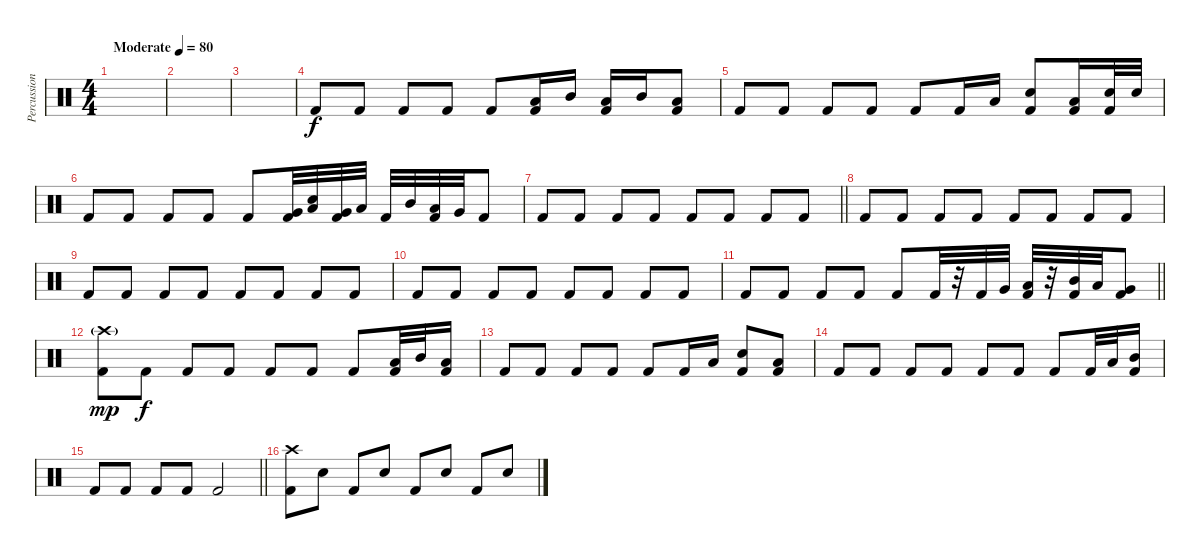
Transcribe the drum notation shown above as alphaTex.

\track ("Percussion" "Percussion") {instrument percussion}
\staff {score}
\articulation defaults
\ts (4 4)
\tempo (80 "Moderate")
\clef neutral
\ks c
|
|
|
"Kick (hit) 2".8 "Kick (hit) 2".8 "Kick (hit) 2".8 "Kick (hit) 2".8 "Kick (hit) 2".8 ("Kick (hit) 2" "Low Tom (hit)").16 "Mid Tom (hit)".16 ("Kick (hit) 2" "Low Tom (hit)").16 "Mid Tom (hit)".16 ("Kick (hit) 2" "Low Tom (hit)").8 |
"Kick (hit) 2".8 "Kick (hit) 2".8 "Kick (hit) 2".8 "Kick (hit) 2".8 "Kick (hit) 2".8 "Kick (hit) 2".16 "Low Tom (hit)".16 ("Kick (hit) 2" "Electric Snare (hit)").8 ("Kick (hit) 2" "Low Tom (hit)").16 ("Kick (hit) 2" "Electric Snare (hit)").32 "Electric Snare (hit)".32 |
"Kick (hit) 2".8 "Kick (hit) 2".8 "Kick (hit) 2".8 "Kick (hit) 2".8 "Kick (hit) 2".8 ("Kick (hit) 2" "Very Low Tom (hit)").32 ("Low Tom (hit)" "Electric Snare (hit)").32 ("Kick (hit) 2" "Very Low Tom (hit)").32 "Low Tom (hit)".32 "Kick (hit) 2".32 "Mid Tom (hit)".32 ("Kick (hit) 2" "Low Tom (hit)").32 "Very Low Tom (hit)".32 "Kick (hit) 2".8 |
\barLineRight lightlight "Kick (hit) 2".8 "Kick (hit) 2".8 "Kick (hit) 2".8 "Kick (hit) 2".8 "Kick (hit) 2".8 "Kick (hit) 2".8 "Kick (hit) 2".8 "Kick (hit) 2".8
|
"Kick (hit) 2".8 "Kick (hit) 2".8 "Kick (hit) 2".8 "Kick (hit) 2".8 "Kick (hit) 2".8 "Kick (hit) 2".8 "Kick (hit) 2".8 "Kick (hit) 2".8 |
"Kick (hit) 2".8 "Kick (hit) 2".8 "Kick (hit) 2".8 "Kick (hit) 2".8 "Kick (hit) 2".8 "Kick (hit) 2".8 "Kick (hit) 2".8 "Kick (hit) 2".8 |
"Kick (hit) 2".8 "Kick (hit) 2".8 "Kick (hit) 2".8 "Kick (hit) 2".8 "Kick (hit) 2".8 "Kick (hit) 2".8 "Kick (hit) 2".8 "Kick (hit) 2".8 |
\barLineRight lightlight "Kick (hit) 2".8 "Kick (hit) 2".8 "Kick (hit) 2".8 "Kick (hit) 2".8 "Kick (hit) 2".8 "Kick (hit) 2".32
r.32 "Kick (hit) 2".32 "Very Low Tom (hit)".32 ("Kick (hit) 2" "Low Tom (hit)").32 r.32 ("Kick (hit) 2" "Mid Tom (hit)").32 "Low Tom (hit)".32 ("Kick (hit) 2" "Very Low Tom (hit)").8 |
("Kick (hit) 2" "Crash high (hit)"{g}).8{dy mp} "Kick (hit) 2".8{dy f} "Kick (hit) 2".8 "Kick (hit) 2".8 "Kick (hit) 2".8 "Kick (hit) 2".8 "Kick (hit) 2".8 ("Kick (hit) 2" "Low Tom (hit)").32 "Mid Tom (hit)".32 ("Kick (hit) 2" "Low Tom (hit)").16 |
"Kick (hit) 2".8 "Kick (hit) 2".8 "Kick (hit) 2".8 "Kick (hit) 2".8 "Kick (hit) 2".8 "Kick (hit) 2".16 "Low Tom (hit)".16 ("Kick (hit) 2" "Electric Snare (hit)").8 ("Kick (hit) 2" "Low Tom (hit)").8 |
"Kick (hit) 2".8 "Kick (hit) 2".8 "Kick (hit) 2".8 "Kick (hit) 2".8 "Kick (hit) 2".8 "Kick (hit) 2".8 "Kick (hit) 2".8 "Kick (hit) 2".32 "Low Tom (hit)".32 ("Kick (hit) 2" "Mid Tom (hit)").16 |
\barLineRight lightlight "Kick (hit) 2".8 "Kick (hit) 2".8 "Kick (hit) 2".8 "Kick (hit) 2".8 "Kick (hit) 2".2
|
("Kick (hit) 2" "Crash high (hit)").8 "Snare (hit) 2".8 "Kick (hit) 2".8 "Snare (hit) 2".8 "Kick (hit) 2".8 "Snare (hit) 2".8 "Kick (hit) 2".8 "Snare (hit) 2".8
